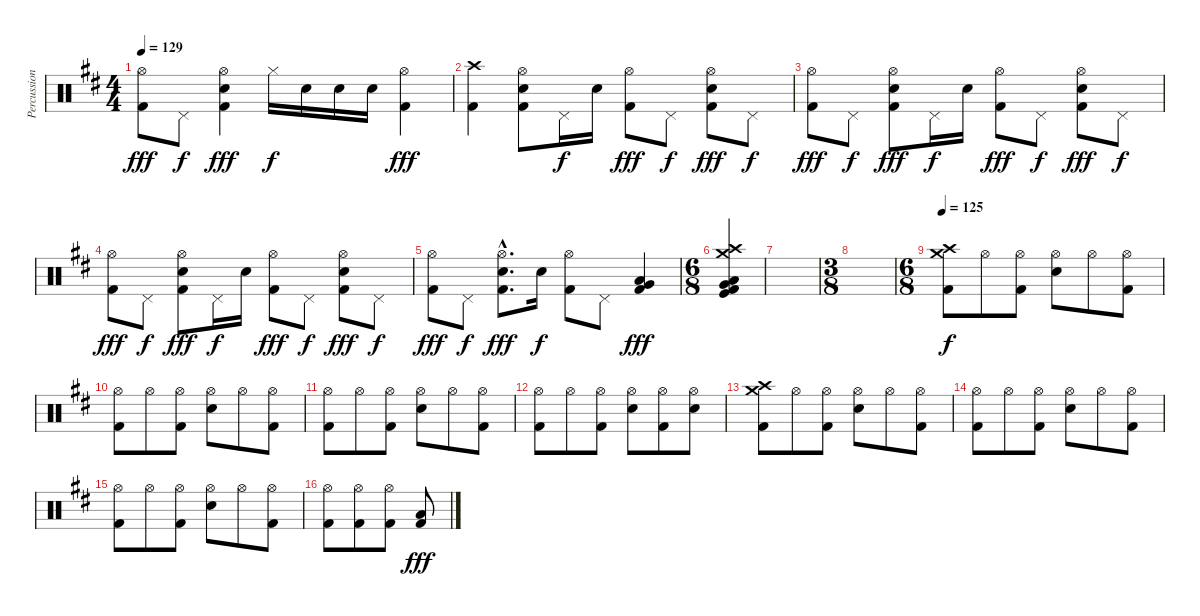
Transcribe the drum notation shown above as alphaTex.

\track ("Percussion" "Percussion") {instrument percussion}
\staff {score}
\articulation defaults
\ts (4 4)
\tempo 129
\clef neutral
\ks d
("Hi-Hat (open)" "Kick (hit) 2").8{dy fff} "Pedal Hi-Hat (hit)".8{dy f} ("Hi-Hat (open)" "Kick (hit) 2" "Electric Snare (hit)").4{dy fff} "Hi-Hat (closed)".16{dy f} "Electric Snare (hit)".16 "Electric Snare (hit)".16 "Electric Snare (hit)".16 ("Hi-Hat (open)" "Kick (hit) 2").4{dy fff} |
("Crash high (hit)" "Kick (hit) 2").4 ("Hi-Hat (open)" "Kick (hit) 2" "Electric Snare (hit)").8 "Pedal Hi-Hat (hit)".16{dy f} "Electric Snare (hit)".16 ("Hi-Hat (open)" "Kick (hit) 2").8{dy fff} "Pedal Hi-Hat (hit)".8{dy f} ("Hi-Hat (open)" "Kick (hit) 2" "Electric Snare (hit)").8{dy fff} "Pedal Hi-Hat (hit)".8{dy f} |
("Hi-Hat (open)" "Kick (hit) 2").8{dy fff} "Pedal Hi-Hat (hit)".8{dy f} ("Hi-Hat (open)" "Kick (hit) 2" "Electric Snare (hit)").8{dy fff} "Pedal Hi-Hat (hit)".16{dy f} "Electric Snare (hit)".16 ("Hi-Hat (open)" "Kick (hit) 2").8{dy fff} "Pedal Hi-Hat (hit)".8{dy f} ("Hi-Hat (open)" "Kick (hit) 2" "Electric Snare (hit)").8{dy fff} "Pedal Hi-Hat (hit)".8{dy f} |
("Hi-Hat (open)" "Kick (hit) 2").8{dy fff} "Pedal Hi-Hat (hit)".8{dy f} ("Hi-Hat (open)" "Kick (hit) 2" "Electric Snare (hit)").8{dy fff} "Pedal Hi-Hat (hit)".16{dy f} "Electric Snare (hit)".16 ("Hi-Hat (open)" "Kick (hit) 2").8{dy fff} "Pedal Hi-Hat (hit)".8{dy f} ("Hi-Hat (open)" "Kick (hit) 2" "Electric Snare (hit)").8{dy fff} "Pedal Hi-Hat (hit)".8{dy f} |
("Hi-Hat (open)" "Kick (hit) 2").8{dy fff} "Pedal Hi-Hat (hit)".8{dy f} ("Hi-Hat (open)"{hac} "Kick (hit) 2"{hac} "Electric Snare (hit)"{hac}).8{d dy fff} "Electric Snare (hit)".16{dy f} ("Hi-Hat (open)" "Kick (hit) 2").8 "Pedal Hi-Hat (hit)".8 ("Kick (hit) 2" "Very Low Tom (hit)" "Low Floor Tom (hit)").4{dy fff} |
\ts (6 8)
("Crash high (hit)" "Crash medium (hit)" "Kick (hit) 2" "Kick (hit)" "Very Low Tom (hit)" "Low Floor Tom (hit)").4 |
|
\ts (3 8)
|
\ts (6 8)
\tempo 125
("Crash medium (hit)" "Crash high (hit)" "Kick (hit) 2").8{dy f} "Hi-Hat (open)".8 ("Hi-Hat (open)" "Kick (hit) 2").8 ("Hi-Hat (open)" "Electric Snare (hit)").8 "Hi-Hat (open)".8 ("Hi-Hat (open)" "Kick (hit) 2").8 |
("Hi-Hat (open)" "Kick (hit) 2").8 "Hi-Hat (open)".8 ("Hi-Hat (open)" "Kick (hit) 2").8 ("Hi-Hat (open)" "Electric Snare (hit)").8 "Hi-Hat (open)".8 ("Hi-Hat (open)" "Kick (hit) 2").8 |
("Hi-Hat (open)" "Kick (hit) 2").8 "Hi-Hat (open)".8 ("Hi-Hat (open)" "Kick (hit) 2").8 ("Hi-Hat (open)" "Electric Snare (hit)").8 "Hi-Hat (open)".8 ("Hi-Hat (open)" "Kick (hit) 2").8 |
("Hi-Hat (open)" "Kick (hit) 2").8 "Hi-Hat (open)".8 ("Hi-Hat (open)" "Kick (hit) 2").8 ("Hi-Hat (open)" "Electric Snare (hit)").8 ("Hi-Hat (open)" "Kick (hit) 2").8 ("Hi-Hat (open)" "Electric Snare (hit)").8 |
("Crash high (hit)" "Crash medium (hit)" "Kick (hit) 2").8 "Hi-Hat (open)".8 ("Hi-Hat (open)" "Kick (hit) 2").8 ("Hi-Hat (open)" "Electric Snare (hit)").8 "Hi-Hat (open)".8 ("Hi-Hat (open)" "Kick (hit) 2").8 |
("Hi-Hat (open)" "Kick (hit) 2").8 "Hi-Hat (open)".8 ("Hi-Hat (open)" "Kick (hit) 2").8 ("Hi-Hat (open)" "Electric Snare (hit)").8 "Hi-Hat (open)".8 ("Hi-Hat (open)" "Kick (hit) 2").8 |
("Hi-Hat (open)" "Kick (hit) 2").8 "Hi-Hat (open)".8 ("Hi-Hat (open)" "Kick (hit) 2").8 ("Hi-Hat (open)" "Electric Snare (hit)").8 "Hi-Hat (open)".8 ("Hi-Hat (open)" "Kick (hit) 2").8 |
("Hi-Hat (open)" "Kick (hit) 2").8 ("Hi-Hat (open)" "Kick (hit) 2").8 ("Hi-Hat (open)" "Kick (hit) 2").8 ("Kick (hit) 2" "Low Floor Tom (hit)").8{bu 120 dy fff}
